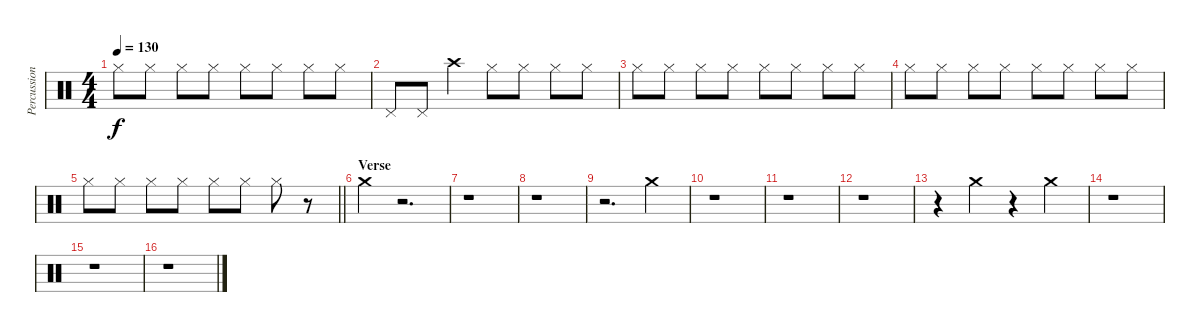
\track ("Percussion 2" "Percussion") {instrument percussion}
\staff {score}
\articulation defaults
\ts (4 4)
\tempo 130
\clef neutral
\ks c "Hi-Hat (closed)".8{dy f} "Hi-Hat (closed)".8 "Hi-Hat (closed)".8 "Hi-Hat (closed)".8 "Hi-Hat (closed)".8 "Hi-Hat (closed)".8 "Hi-Hat (closed)".8 "Hi-Hat (closed)".8
|
"Pedal Hi-Hat (hit)".8 "Pedal Hi-Hat (hit)".8 "Crash high (hit)".4 "Hi-Hat (closed)".8 "Hi-Hat (closed)".8 "Hi-Hat (closed)".8 "Hi-Hat (closed)".8 |
"Hi-Hat (closed)".8 "Hi-Hat (closed)".8 "Hi-Hat (closed)".8 "Hi-Hat (closed)".8 "Hi-Hat (closed)".8 "Hi-Hat (closed)".8 "Hi-Hat (closed)".8 "Hi-Hat (closed)".8 |
"Hi-Hat (closed)".8 "Hi-Hat (closed)".8 "Hi-Hat (closed)".8 "Hi-Hat (closed)".8 "Hi-Hat (closed)".8 "Hi-Hat (closed)".8 "Hi-Hat (closed)".8 "Hi-Hat (closed)".8 |
\barLineRight lightlight "Hi-Hat (closed)".8 "Hi-Hat (closed)".8 "Hi-Hat (closed)".8 "Hi-Hat (closed)".8 "Hi-Hat (closed)".8 "Hi-Hat (closed)".8 "Hi-Hat (closed)".8
r.8 |
\section ("" "Verse")
"Crash medium (hit)".4 r.2{d} |
r.1 |
r.1 |
r.2{d} "Crash medium (hit)".4 |
r.1 |
r.1 |
r.1 |
r.4 "Crash medium (hit)".4 r.4 "Crash medium (hit)".4 |
r.1 |
r.1 |
r.1
